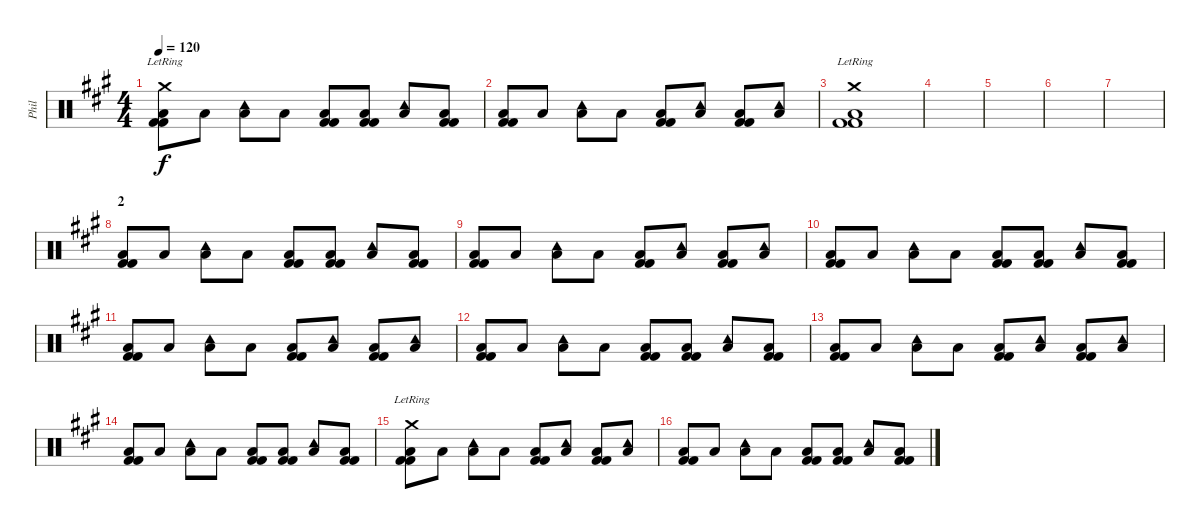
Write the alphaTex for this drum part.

\track ("Phil" "Phil") {instrument percussion}
\staff {score}
\articulation defaults
\ts (4 4)
\tempo 120
\clef neutral
\ks a
("Kick (hit) 2" "Low Floor Tom (hit)" "Kick (hit) 2" "Crash medium (hit)"{lr}).8{dy f} "Low Floor Tom (hit)".8 ("Low Floor Tom (hit)" "Tambourine (hit)").8 "Low Floor Tom (hit)".8 ("Kick (hit) 2" "Low Floor Tom (hit)" "Kick (hit) 2").8 ("Kick (hit) 2" "Low Floor Tom (hit)" "Kick (hit) 2").8 ("Low Floor Tom (hit)" "Tambourine (hit)").8 ("Kick (hit) 2" "Low Floor Tom (hit)" "Kick (hit) 2").8 |
("Kick (hit) 2" "Low Floor Tom (hit)" "Kick (hit) 2").8 "Low Floor Tom (hit)".8 ("Low Floor Tom (hit)" "Tambourine (hit)").8 "Low Floor Tom (hit)".8 ("Kick (hit) 2" "Low Floor Tom (hit)" "Kick (hit) 2").8 ("Low Floor Tom (hit)" "Tambourine (hit)").8 ("Kick (hit) 2" "Low Floor Tom (hit)" "Kick (hit) 2").8 ("Low Floor Tom (hit)" "Tambourine (hit)").8 |
("Kick (hit) 2" "Low Floor Tom (hit)" "Kick (hit) 2" "Crash medium (hit)"{lr}).1 |
|
|
|
|
\section ("" "2")
("Kick (hit) 2" "Low Floor Tom (hit)" "Kick (hit) 2").8 "Low Floor Tom (hit)".8 ("Low Floor Tom (hit)" "Tambourine (hit)").8 "Low Floor Tom (hit)".8 ("Kick (hit) 2" "Low Floor Tom (hit)" "Kick (hit) 2").8 ("Kick (hit) 2" "Low Floor Tom (hit)" "Kick (hit) 2").8 ("Low Floor Tom (hit)" "Tambourine (hit)").8 ("Kick (hit) 2" "Low Floor Tom (hit)" "Kick (hit) 2").8 |
("Kick (hit) 2" "Low Floor Tom (hit)" "Kick (hit) 2").8 "Low Floor Tom (hit)".8 ("Low Floor Tom (hit)" "Tambourine (hit)").8 "Low Floor Tom (hit)".8 ("Kick (hit) 2" "Low Floor Tom (hit)" "Kick (hit) 2").8 ("Low Floor Tom (hit)" "Tambourine (hit)").8 ("Kick (hit) 2" "Low Floor Tom (hit)" "Kick (hit) 2").8 ("Low Floor Tom (hit)" "Tambourine (hit)").8 |
("Kick (hit) 2" "Low Floor Tom (hit)" "Kick (hit) 2").8 "Low Floor Tom (hit)".8 ("Low Floor Tom (hit)" "Tambourine (hit)").8 "Low Floor Tom (hit)".8 ("Kick (hit) 2" "Low Floor Tom (hit)" "Kick (hit) 2").8 ("Kick (hit) 2" "Low Floor Tom (hit)" "Kick (hit) 2").8 ("Low Floor Tom (hit)" "Tambourine (hit)").8 ("Kick (hit) 2" "Low Floor Tom (hit)" "Kick (hit) 2").8 |
("Kick (hit) 2" "Low Floor Tom (hit)" "Kick (hit) 2").8 "Low Floor Tom (hit)".8 ("Low Floor Tom (hit)" "Tambourine (hit)").8 "Low Floor Tom (hit)".8 ("Kick (hit) 2" "Low Floor Tom (hit)" "Kick (hit) 2").8 ("Low Floor Tom (hit)" "Tambourine (hit)").8 ("Kick (hit) 2" "Low Floor Tom (hit)" "Kick (hit) 2").8 ("Low Floor Tom (hit)" "Tambourine (hit)").8 |
("Kick (hit) 2" "Low Floor Tom (hit)" "Kick (hit) 2").8 "Low Floor Tom (hit)".8 ("Low Floor Tom (hit)" "Tambourine (hit)").8 "Low Floor Tom (hit)".8 ("Kick (hit) 2" "Low Floor Tom (hit)" "Kick (hit) 2").8 ("Kick (hit) 2" "Low Floor Tom (hit)" "Kick (hit) 2").8 ("Low Floor Tom (hit)" "Tambourine (hit)").8 ("Kick (hit) 2" "Low Floor Tom (hit)" "Kick (hit) 2").8 |
("Kick (hit) 2" "Low Floor Tom (hit)" "Kick (hit) 2").8 "Low Floor Tom (hit)".8 ("Low Floor Tom (hit)" "Tambourine (hit)").8 "Low Floor Tom (hit)".8 ("Kick (hit) 2" "Low Floor Tom (hit)" "Kick (hit) 2").8 ("Low Floor Tom (hit)" "Tambourine (hit)").8 ("Kick (hit) 2" "Low Floor Tom (hit)" "Kick (hit) 2").8 ("Low Floor Tom (hit)" "Tambourine (hit)").8 |
("Kick (hit) 2" "Low Floor Tom (hit)" "Kick (hit) 2").8 "Low Floor Tom (hit)".8 ("Low Floor Tom (hit)" "Tambourine (hit)").8 "Low Floor Tom (hit)".8 ("Kick (hit) 2" "Low Floor Tom (hit)" "Kick (hit) 2").8 ("Kick (hit) 2" "Low Floor Tom (hit)" "Kick (hit) 2").8 ("Low Floor Tom (hit)" "Tambourine (hit)").8 ("Kick (hit) 2" "Low Floor Tom (hit)" "Kick (hit) 2").8 |
("Kick (hit) 2" "Low Floor Tom (hit)" "Kick (hit) 2" "Crash medium (hit)"{lr}).8 "Low Floor Tom (hit)".8 ("Low Floor Tom (hit)" "Tambourine (hit)").8 "Low Floor Tom (hit)".8 ("Kick (hit) 2" "Low Floor Tom (hit)" "Kick (hit) 2").8 ("Low Floor Tom (hit)" "Tambourine (hit)").8 ("Kick (hit) 2" "Low Floor Tom (hit)" "Kick (hit) 2").8 ("Low Floor Tom (hit)" "Tambourine (hit)").8 |
("Kick (hit) 2" "Low Floor Tom (hit)" "Kick (hit) 2").8 "Low Floor Tom (hit)".8 ("Low Floor Tom (hit)" "Tambourine (hit)").8 "Low Floor Tom (hit)".8 ("Kick (hit) 2" "Low Floor Tom (hit)" "Kick (hit) 2").8 ("Kick (hit) 2" "Low Floor Tom (hit)" "Kick (hit) 2").8 ("Low Floor Tom (hit)" "Tambourine (hit)").8 ("Kick (hit) 2" "Low Floor Tom (hit)" "Kick (hit) 2").8
